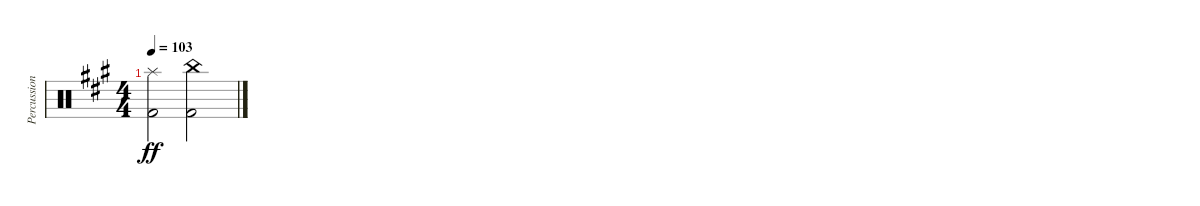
\track ("Percussion" "Percussion") {instrument percussion bank 127}
\staff {score}
\articulation defaults
\ts (4 4)
\tempo 103
\clef neutral
\ks a
("Splash (hit)" "Kick (hit) 2").2{dy ff} ("China (hit)" "Kick (hit) 2").2
